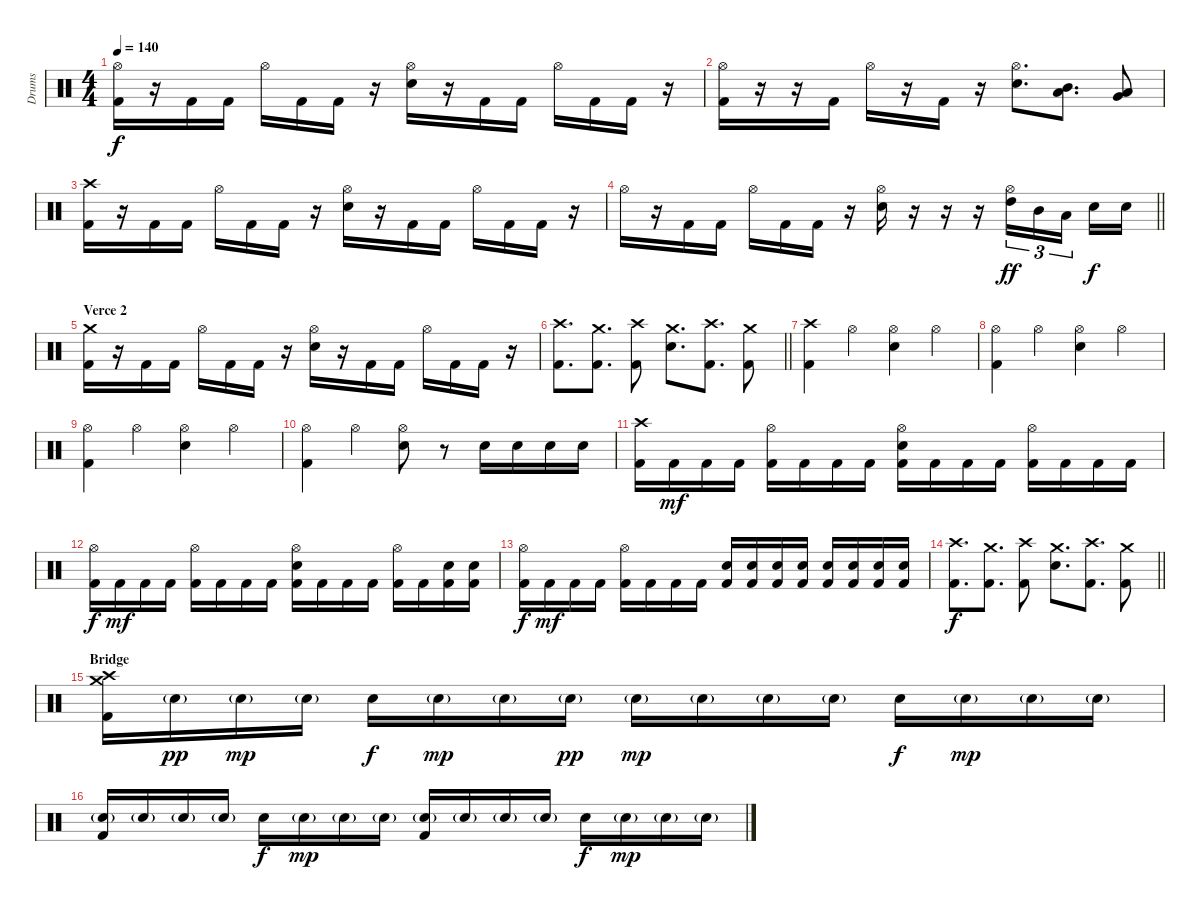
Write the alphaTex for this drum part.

\track ("Drums" "Drums") {instrument percussion}
\staff {score}
\articulation defaults
\ts (4 4)
\tempo 140
\clef neutral
\ks c
("Hi-Hat (open)" "Kick (hit) 2").16{dy f} r.16 "Kick (hit) 2".16 "Kick (hit) 2".16 "Hi-Hat (open)".16 "Kick (hit) 2".16 "Kick (hit) 2".16 r.16 ("Hi-Hat (open)" "Electric Snare (hit)").16 r.16 "Kick (hit) 2".16 "Kick (hit) 2".16 "Hi-Hat (open)".16 "Kick (hit) 2".16 "Kick (hit) 2".16 r.16 |
("Hi-Hat (open)" "Kick (hit) 2").16 r.16 r.16 "Kick (hit) 2".16 "Hi-Hat (open)".16 r.16 "Kick (hit) 2".16 r.16 ("Hi-Hat (open)" "Electric Snare (hit)").8{d} ("Mid Tom (hit)" "Low Tom (hit)").8{d} ("Very Low Tom (hit)" "Low Floor Tom (hit)").8 |
("Crash high (hit)" "Kick (hit) 2").16 r.16 "Kick (hit) 2".16 "Kick (hit) 2".16 "Hi-Hat (open)".16 "Kick (hit) 2".16 "Kick (hit) 2".16 r.16 ("Hi-Hat (open)" "Electric Snare (hit)").16 r.16 "Kick (hit) 2".16 "Kick (hit) 2".16 "Hi-Hat (open)".16 "Kick (hit) 2".16 "Kick (hit) 2".16 r.16 |
\barLineRight lightlight "Hi-Hat (open)".16
r.16 "Kick (hit) 2".16 "Kick (hit) 2".16 "Hi-Hat (open)".16 "Kick (hit) 2".16 "Kick (hit) 2".16 r.16 ("Hi-Hat (open)" "Electric Snare (hit)").16 r.16 r.16 r.16 ("Hi-Hat (open)" "High Tom (hit)").16{tu (3 2) dy ff} "Mid Tom (hit)".16{tu (3 2)} "Low Tom (hit)".16{tu (3 2) beam splitsecondary} "Electric Snare (hit)".16{dy f} "Electric Snare (hit)".16 |
\section ("" "Verce 2")
("Crash medium (hit)" "Kick (hit) 2").16 r.16 "Kick (hit) 2".16 "Kick (hit) 2".16 "Hi-Hat (open)".16 "Kick (hit) 2".16 "Kick (hit) 2".16 r.16 ("Hi-Hat (open)" "Electric Snare (hit)").16 r.16 "Kick (hit) 2".16 "Kick (hit) 2".16 "Hi-Hat (open)".16 "Kick (hit) 2".16 "Kick (hit) 2".16 r.16 |
\barLineRight lightlight
("Crash high (hit)" "Kick (hit) 2").8{d} ("Crash medium (hit)" "Kick (hit) 2").8{d} ("Crash high (hit)" "Kick (hit) 2").8 ("Crash medium (hit)" "Electric Snare (hit)").8{d} ("Crash high (hit)" "Kick (hit) 2").8{d} ("Crash medium (hit)" "Kick (hit) 2").8 |
("Crash high (hit)" "Kick (hit) 2").4 "Hi-Hat (open)".4 ("Hi-Hat (open)" "Electric Snare (hit)").4 "Hi-Hat (open)".4 |
("Hi-Hat (open)" "Kick (hit) 2").4 "Hi-Hat (open)".4 ("Hi-Hat (open)" "Electric Snare (hit)").4 "Hi-Hat (open)".4 |
("Hi-Hat (open)" "Kick (hit) 2").4 "Hi-Hat (open)".4 ("Hi-Hat (open)" "Electric Snare (hit)").4 "Hi-Hat (open)".4 |
("Hi-Hat (open)" "Kick (hit) 2").4 "Hi-Hat (open)".4 ("Hi-Hat (open)" "Electric Snare (hit)").8 r.8 "Electric Snare (hit)".16 "Electric Snare (hit)".16 "Electric Snare (hit)".16 "Electric Snare (hit)".16 |
("Crash high (hit)" "Kick (hit) 2").16 "Kick (hit) 2".16{dy mf} "Kick (hit) 2".16 "Kick (hit) 2".16 ("Hi-Hat (open)" "Kick (hit) 2").16 "Kick (hit) 2".16 "Kick (hit) 2".16 "Kick (hit) 2".16 ("Hi-Hat (open)" "Electric Snare (hit)" "Kick (hit) 2").16 "Kick (hit) 2".16 "Kick (hit) 2".16 "Kick (hit) 2".16 ("Hi-Hat (open)" "Kick (hit) 2").16 "Kick (hit) 2".16 "Kick (hit) 2".16 "Kick (hit) 2".16 |
("Hi-Hat (open)" "Kick (hit) 2").16{dy f} "Kick (hit) 2".16{dy mf} "Kick (hit) 2".16 "Kick (hit) 2".16 ("Hi-Hat (open)" "Kick (hit) 2").16 "Kick (hit) 2".16 "Kick (hit) 2".16 "Kick (hit) 2".16 ("Hi-Hat (open)" "Electric Snare (hit)" "Kick (hit) 2").16 "Kick (hit) 2".16 "Kick (hit) 2".16 "Kick (hit) 2".16 ("Hi-Hat (open)" "Kick (hit) 2").16 "Kick (hit) 2".16 ("Electric Snare (hit)" "Kick (hit) 2").16 ("Electric Snare (hit)" "Kick (hit) 2").16 |
("Hi-Hat (open)" "Kick (hit) 2").16{dy f} "Kick (hit) 2".16{dy mf} "Kick (hit) 2".16 "Kick (hit) 2".16 ("Hi-Hat (open)" "Kick (hit) 2").16 "Kick (hit) 2".16 "Kick (hit) 2".16 "Kick (hit) 2".16 ("Electric Snare (hit)" "Kick (hit) 2").16 ("Electric Snare (hit)" "Kick (hit) 2").16 ("Electric Snare (hit)" "Kick (hit) 2").16 ("Electric Snare (hit)" "Kick (hit) 2").16 ("Electric Snare (hit)" "Kick (hit) 2").16 ("Electric Snare (hit)" "Kick (hit) 2").16 ("Electric Snare (hit)" "Kick (hit) 2").16 ("Electric Snare (hit)" "Kick (hit) 2").16 |
\barLineRight lightlight
("Crash high (hit)" "Kick (hit) 2").8{d dy f} ("Crash medium (hit)" "Kick (hit) 2").8{d} ("Crash high (hit)" "Kick (hit) 2").8 ("Crash medium (hit)" "Electric Snare (hit)").8{d} ("Crash high (hit)" "Kick (hit) 2").8{d} ("Crash medium (hit)" "Kick (hit) 2").8 |
\section ("" "Bridge")
("Crash high (hit)" "Crash medium (hit)" "Kick (hit) 2").16 "Electric Snare (hit)"{g}.16{dy pp} "Electric Snare (hit)"{g}.16{dy mp} "Electric Snare (hit)"{g}.16 "Electric Snare (hit)".16{dy f} "Electric Snare (hit)"{g}.16{dy mp} "Electric Snare (hit)"{g}.16 "Electric Snare (hit)"{g}.16{dy pp} "Electric Snare (hit)"{g}.16{dy mp} "Electric Snare (hit)"{g}.16 "Electric Snare (hit)"{g}.16 "Electric Snare (hit)"{g}.16 "Electric Snare (hit)".16{dy f} "Electric Snare (hit)"{g}.16{dy mp} "Electric Snare (hit)"{g}.16 "Electric Snare (hit)"{g}.16 |
("Electric Snare (hit)"{g} "Kick (hit) 2").16 "Electric Snare (hit)"{g}.16 "Electric Snare (hit)"{g}.16 "Electric Snare (hit)"{g}.16 "Electric Snare (hit)".16{dy f} "Electric Snare (hit)"{g}.16{dy mp} "Electric Snare (hit)"{g}.16 "Electric Snare (hit)"{g}.16 ("Electric Snare (hit)"{g} "Kick (hit) 2").16 "Electric Snare (hit)"{g}.16 "Electric Snare (hit)"{g}.16 "Electric Snare (hit)"{g}.16 "Electric Snare (hit)".16{dy f} "Electric Snare (hit)"{g}.16{dy mp} "Electric Snare (hit)"{g}.16 "Electric Snare (hit)"{g}.16
